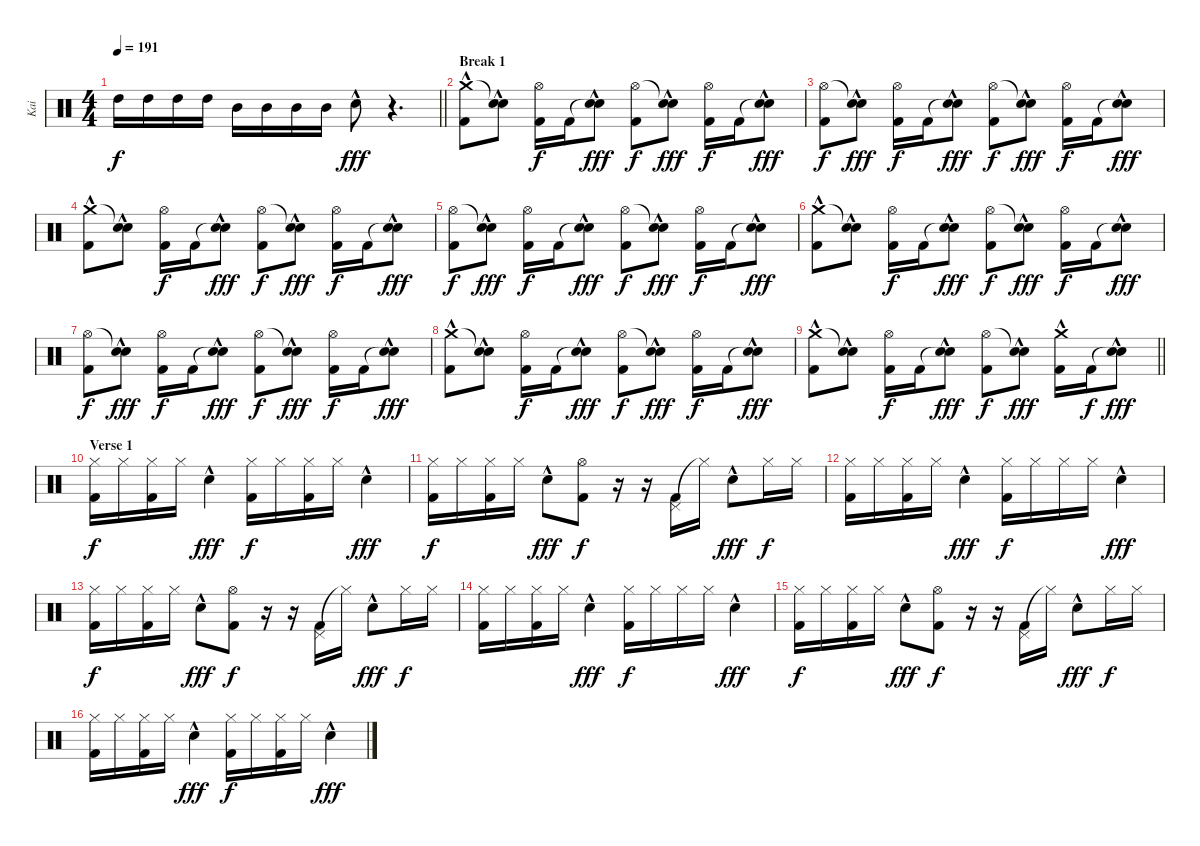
\track ("Kai" "Kai") {instrument percussion}
\staff {score}
\articulation defaults
\ts (4 4)
\tempo 191
\clef neutral
\barLineRight lightlight
\ks c "High Tom (hit)".16{dy f} "High Tom (hit)".16 "High Tom (hit)".16 "High Tom (hit)".16 "Mid Tom (hit)".16 "Mid Tom (hit)".16 "Mid Tom (hit)".16 "Mid Tom (hit)".16 "Snare (hit) 2"{hac}.8{dy fff}
r.4{d} |
\section ("" "Break 1")
("Crash medium (hit)"{hac} "Kick (hit) 2").8 ("Snare (hit)"{t} "Snare (hit) 2"{hac}).8 ("Hi-Hat (open)" "Kick (hit) 2").16{dy f} "Kick (hit) 2".16 ("Snare (hit)"{t} "Snare (hit) 2"{hac}).8{dy fff} ("Hi-Hat (open)" "Kick (hit) 2").8{dy f} ("Snare (hit)"{t} "Snare (hit) 2"{hac}).8{dy fff} ("Hi-Hat (open)" "Kick (hit) 2").16{dy f} "Kick (hit) 2".16 ("Snare (hit)"{t} "Snare (hit) 2"{hac}).8{dy fff} |
("Hi-Hat (open)" "Kick (hit) 2").8{dy f} ("Snare (hit)"{t} "Snare (hit) 2"{hac}).8{dy fff} ("Hi-Hat (open)" "Kick (hit) 2").16{dy f} "Kick (hit) 2".16 ("Snare (hit)"{t} "Snare (hit) 2"{hac}).8{dy fff} ("Hi-Hat (open)" "Kick (hit) 2").8{dy f} ("Snare (hit)"{t} "Snare (hit) 2"{hac}).8{dy fff} ("Hi-Hat (open)" "Kick (hit) 2").16{dy f} "Kick (hit) 2".16 ("Snare (hit)"{t} "Snare (hit) 2"{hac}).8{dy fff} |
("Crash medium (hit)"{hac} "Kick (hit) 2").8 ("Snare (hit)"{t} "Snare (hit) 2"{hac}).8 ("Hi-Hat (open)" "Kick (hit) 2").16{dy f} "Kick (hit) 2".16 ("Snare (hit)"{t} "Snare (hit) 2"{hac}).8{dy fff} ("Hi-Hat (open)" "Kick (hit) 2").8{dy f} ("Snare (hit)"{t} "Snare (hit) 2"{hac}).8{dy fff} ("Hi-Hat (open)" "Kick (hit) 2").16{dy f} "Kick (hit) 2".16 ("Snare (hit)"{t} "Snare (hit) 2"{hac}).8{dy fff} |
("Hi-Hat (open)" "Kick (hit) 2").8{dy f} ("Snare (hit)"{t} "Snare (hit) 2"{hac}).8{dy fff} ("Hi-Hat (open)" "Kick (hit) 2").16{dy f} "Kick (hit) 2".16 ("Snare (hit)"{t} "Snare (hit) 2"{hac}).8{dy fff} ("Hi-Hat (open)" "Kick (hit) 2").8{dy f} ("Snare (hit)"{t} "Snare (hit) 2"{hac}).8{dy fff} ("Hi-Hat (open)" "Kick (hit) 2").16{dy f} "Kick (hit) 2".16 ("Snare (hit)"{t} "Snare (hit) 2"{hac}).8{dy fff} |
("Crash medium (hit)"{hac} "Kick (hit) 2").8 ("Snare (hit)"{t} "Snare (hit) 2"{hac}).8 ("Hi-Hat (open)" "Kick (hit) 2").16{dy f} "Kick (hit) 2".16 ("Snare (hit)"{t} "Snare (hit) 2"{hac}).8{dy fff} ("Hi-Hat (open)" "Kick (hit) 2").8{dy f} ("Snare (hit)"{t} "Snare (hit) 2"{hac}).8{dy fff} ("Hi-Hat (open)" "Kick (hit) 2").16{dy f} "Kick (hit) 2".16 ("Snare (hit)"{t} "Snare (hit) 2"{hac}).8{dy fff} |
("Hi-Hat (open)" "Kick (hit) 2").8{dy f} ("Snare (hit)"{t} "Snare (hit) 2"{hac}).8{dy fff} ("Hi-Hat (open)" "Kick (hit) 2").16{dy f} "Kick (hit) 2".16 ("Snare (hit)"{t} "Snare (hit) 2"{hac}).8{dy fff} ("Hi-Hat (open)" "Kick (hit) 2").8{dy f} ("Snare (hit)"{t} "Snare (hit) 2"{hac}).8{dy fff} ("Hi-Hat (open)" "Kick (hit) 2").16{dy f} "Kick (hit) 2".16 ("Snare (hit)"{t} "Snare (hit) 2"{hac}).8{dy fff} |
("Crash medium (hit)"{hac} "Kick (hit) 2").8 ("Snare (hit)"{t} "Snare (hit) 2"{hac}).8 ("Hi-Hat (open)" "Kick (hit) 2").16{dy f} "Kick (hit) 2".16 ("Snare (hit)"{t} "Snare (hit) 2"{hac}).8{dy fff} ("Hi-Hat (open)" "Kick (hit) 2").8{dy f} ("Snare (hit)"{t} "Snare (hit) 2"{hac}).8{dy fff} ("Hi-Hat (open)" "Kick (hit) 2").16{dy f} "Kick (hit) 2".16 ("Snare (hit)"{t} "Snare (hit) 2"{hac}).8{dy fff} |
\barLineRight lightlight
("Crash medium (hit)"{hac} "Kick (hit) 2").8 ("Snare (hit)"{t} "Snare (hit) 2"{hac}).8 ("Hi-Hat (open)" "Kick (hit) 2").16{dy f} "Kick (hit) 2".16 ("Snare (hit)"{t} "Snare (hit) 2"{hac}).8{dy fff} ("Hi-Hat (open)" "Kick (hit) 2").8{dy f} ("Snare (hit)"{t} "Snare (hit) 2"{hac}).8{dy fff} ("Crash medium (hit)"{hac} "Kick (hit) 2").16 "Kick (hit) 2".16{dy f} ("Snare (hit)"{t} "Snare (hit) 2"{hac}).8{dy fff} |
\section ("" "Verse 1")
("Hi-Hat (closed)" "Kick (hit) 2").16{dy f} "Hi-Hat (closed)".16 ("Hi-Hat (closed)" "Kick (hit) 2").16 "Hi-Hat (closed)".16 "Snare (hit) 2"{hac}.4{dy fff} ("Hi-Hat (closed)" "Kick (hit) 2").16{dy f} "Hi-Hat (closed)".16 ("Hi-Hat (closed)" "Kick (hit) 2").16 "Hi-Hat (closed)".16 "Snare (hit) 2"{hac}.4{dy fff} |
("Hi-Hat (closed)" "Kick (hit) 2").16{dy f} "Hi-Hat (closed)".16 ("Hi-Hat (closed)" "Kick (hit) 2").16 "Hi-Hat (closed)".16 "Snare (hit) 2"{hac}.8{dy fff} ("Hi-Hat (open)" "Kick (hit) 2").8{dy f} r.16 r.16 ("Pedal Hi-Hat (hit)" "Kick (hit) 2").16 "Hi-Hat (closed)"{t}.16 "Snare (hit) 2"{hac}.8{dy fff} "Hi-Hat (closed)".16{dy f} "Hi-Hat (closed)".16 |
("Hi-Hat (closed)" "Kick (hit) 2").16 "Hi-Hat (closed)".16 ("Hi-Hat (closed)" "Kick (hit) 2").16 "Hi-Hat (closed)".16 "Snare (hit) 2"{hac}.4{dy fff} ("Hi-Hat (closed)" "Kick (hit) 2").16{dy f} "Hi-Hat (closed)".16 "Hi-Hat (closed)".16 "Hi-Hat (closed)".16 "Snare (hit) 2"{hac}.4{dy fff} |
("Hi-Hat (closed)" "Kick (hit) 2").16{dy f} "Hi-Hat (closed)".16 ("Hi-Hat (closed)" "Kick (hit) 2").16 "Hi-Hat (closed)".16 "Snare (hit) 2"{hac}.8{dy fff} ("Hi-Hat (open)" "Kick (hit) 2").8{dy f} r.16 r.16 ("Pedal Hi-Hat (hit)" "Kick (hit) 2").16 "Hi-Hat (closed)"{t}.16 "Snare (hit) 2"{hac}.8{dy fff} "Hi-Hat (closed)".16{dy f} "Hi-Hat (closed)".16 |
("Hi-Hat (closed)" "Kick (hit) 2").16 "Hi-Hat (closed)".16 ("Hi-Hat (closed)" "Kick (hit) 2").16 "Hi-Hat (closed)".16 "Snare (hit) 2"{hac}.4{dy fff} ("Hi-Hat (closed)" "Kick (hit) 2").16{dy f} "Hi-Hat (closed)".16 "Hi-Hat (closed)".16 "Hi-Hat (closed)".16 "Snare (hit) 2"{hac}.4{dy fff} |
("Hi-Hat (closed)" "Kick (hit) 2").16{dy f} "Hi-Hat (closed)".16 ("Hi-Hat (closed)" "Kick (hit) 2").16 "Hi-Hat (closed)".16 "Snare (hit) 2"{hac}.8{dy fff} ("Hi-Hat (open)" "Kick (hit) 2").8{dy f} r.16 r.16 ("Pedal Hi-Hat (hit)" "Kick (hit) 2").16 "Hi-Hat (closed)"{t}.16 "Snare (hit) 2"{hac}.8{dy fff} "Hi-Hat (closed)".16{dy f} "Hi-Hat (closed)".16 |
("Hi-Hat (closed)" "Kick (hit) 2").16 "Hi-Hat (closed)".16 ("Hi-Hat (closed)" "Kick (hit) 2").16 "Hi-Hat (closed)".16 "Snare (hit) 2"{hac}.4{dy fff} ("Hi-Hat (closed)" "Kick (hit) 2").16{dy f} "Hi-Hat (closed)".16 ("Hi-Hat (closed)" "Kick (hit) 2").16 "Hi-Hat (closed)".16 "Snare (hit) 2"{hac}.4{dy fff}
